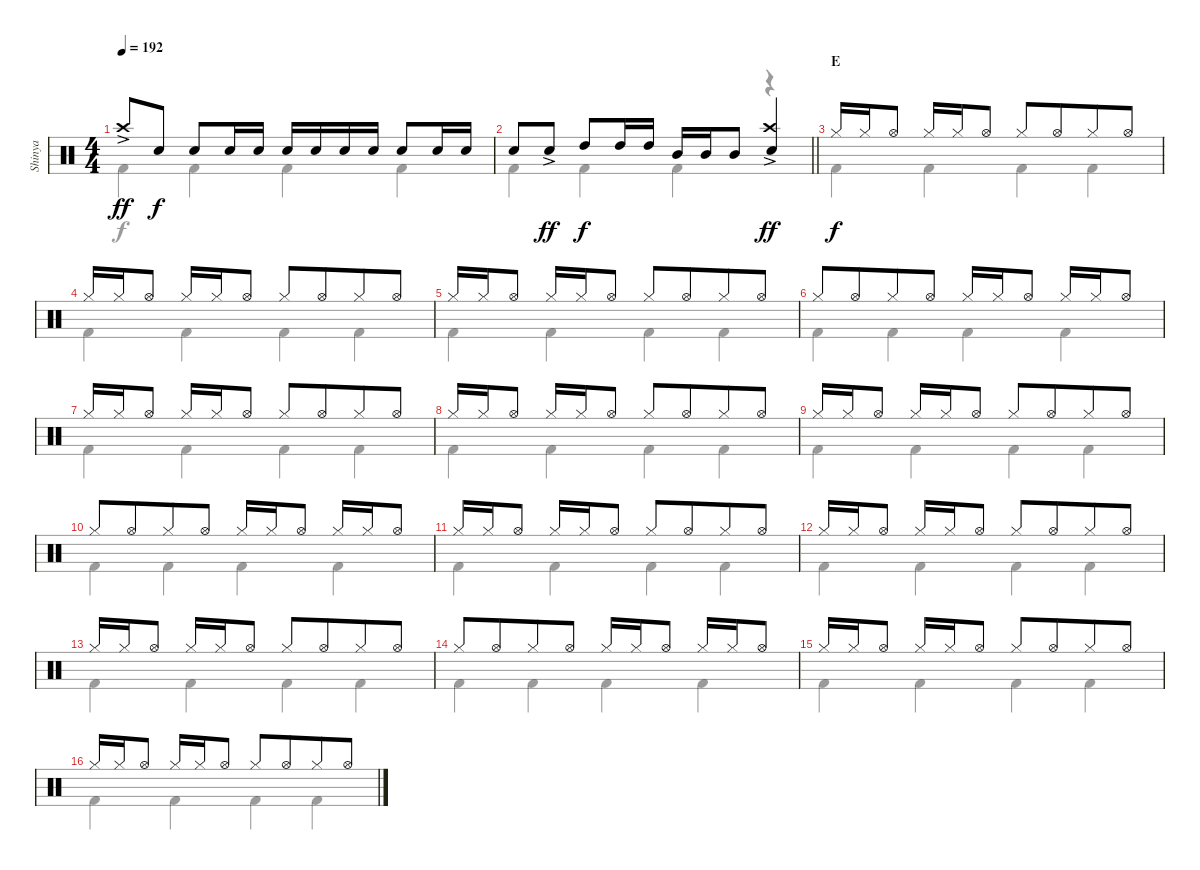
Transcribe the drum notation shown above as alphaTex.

\track ("Shinya" "Shinya") {instrument percussion}
\staff {score}
\articulation defaults
\voice
\ts (4 4)
\tempo 192
\clef neutral
\ks c "Crash high (hit)"{ac}.8{dy ff} "Snare (hit) 2".8{dy f} "Snare (hit) 2".8 "Snare (hit) 2".16 "Snare (hit) 2".16 "Snare (hit) 2".16 "Snare (hit) 2".16 "Snare (hit) 2".16 "Snare (hit) 2".16 "Snare (hit) 2".8 "Snare (hit) 2".16 "Snare (hit) 2".16
|
\barLineRight lightlight "Snare (hit) 2".8 "Snare (hit) 2"{ac}.8{dy ff} "High Tom (hit)".8{dy f} "High Tom (hit)".16 "High Tom (hit)".16 "Mid Tom (hit)".16 "Mid Tom (hit)".16 "Mid Tom (hit)".8
("Crash high (hit)"{ac} "Snare (hit) 2").4{dy ff} |
\section ("" "E")
"Hi-Hat (closed)".16{dy f} "Hi-Hat (closed)".16 "Hi-Hat (open)".8 "Hi-Hat (closed)".16 "Hi-Hat (closed)".16 "Hi-Hat (open)".8 "Hi-Hat (closed)".8 "Hi-Hat (open)".8{beam merge} "Hi-Hat (closed)".8 "Hi-Hat (open)".8 |
"Hi-Hat (closed)".16 "Hi-Hat (closed)".16 "Hi-Hat (open)".8 "Hi-Hat (closed)".16 "Hi-Hat (closed)".16 "Hi-Hat (open)".8 "Hi-Hat (closed)".8 "Hi-Hat (open)".8{beam merge} "Hi-Hat (closed)".8 "Hi-Hat (open)".8 |
"Hi-Hat (closed)".16 "Hi-Hat (closed)".16 "Hi-Hat (open)".8 "Hi-Hat (closed)".16 "Hi-Hat (closed)".16 "Hi-Hat (open)".8 "Hi-Hat (closed)".8 "Hi-Hat (open)".8{beam merge} "Hi-Hat (closed)".8 "Hi-Hat (open)".8 |
"Hi-Hat (closed)".8 "Hi-Hat (open)".8{beam merge} "Hi-Hat (closed)".8 "Hi-Hat (open)".8 "Hi-Hat (closed)".16 "Hi-Hat (closed)".16 "Hi-Hat (open)".8 "Hi-Hat (closed)".16 "Hi-Hat (closed)".16 "Hi-Hat (open)".8 |
"Hi-Hat (closed)".16 "Hi-Hat (closed)".16 "Hi-Hat (open)".8 "Hi-Hat (closed)".16 "Hi-Hat (closed)".16 "Hi-Hat (open)".8 "Hi-Hat (closed)".8 "Hi-Hat (open)".8{beam merge} "Hi-Hat (closed)".8 "Hi-Hat (open)".8 |
"Hi-Hat (closed)".16 "Hi-Hat (closed)".16 "Hi-Hat (open)".8 "Hi-Hat (closed)".16 "Hi-Hat (closed)".16 "Hi-Hat (open)".8 "Hi-Hat (closed)".8 "Hi-Hat (open)".8{beam merge} "Hi-Hat (closed)".8 "Hi-Hat (open)".8 |
"Hi-Hat (closed)".16 "Hi-Hat (closed)".16 "Hi-Hat (open)".8 "Hi-Hat (closed)".16 "Hi-Hat (closed)".16 "Hi-Hat (open)".8 "Hi-Hat (closed)".8 "Hi-Hat (open)".8{beam merge} "Hi-Hat (closed)".8 "Hi-Hat (open)".8 |
"Hi-Hat (closed)".8 "Hi-Hat (open)".8{beam merge} "Hi-Hat (closed)".8 "Hi-Hat (open)".8 "Hi-Hat (closed)".16 "Hi-Hat (closed)".16 "Hi-Hat (open)".8 "Hi-Hat (closed)".16 "Hi-Hat (closed)".16 "Hi-Hat (open)".8 |
"Hi-Hat (closed)".16 "Hi-Hat (closed)".16 "Hi-Hat (open)".8 "Hi-Hat (closed)".16 "Hi-Hat (closed)".16 "Hi-Hat (open)".8 "Hi-Hat (closed)".8 "Hi-Hat (open)".8{beam merge} "Hi-Hat (closed)".8 "Hi-Hat (open)".8 |
"Hi-Hat (closed)".16 "Hi-Hat (closed)".16 "Hi-Hat (open)".8 "Hi-Hat (closed)".16 "Hi-Hat (closed)".16 "Hi-Hat (open)".8 "Hi-Hat (closed)".8 "Hi-Hat (open)".8{beam merge} "Hi-Hat (closed)".8 "Hi-Hat (open)".8 |
"Hi-Hat (closed)".16 "Hi-Hat (closed)".16 "Hi-Hat (open)".8 "Hi-Hat (closed)".16 "Hi-Hat (closed)".16 "Hi-Hat (open)".8 "Hi-Hat (closed)".8 "Hi-Hat (open)".8{beam merge} "Hi-Hat (closed)".8 "Hi-Hat (open)".8 |
"Hi-Hat (closed)".8 "Hi-Hat (open)".8{beam merge} "Hi-Hat (closed)".8 "Hi-Hat (open)".8 "Hi-Hat (closed)".16 "Hi-Hat (closed)".16 "Hi-Hat (open)".8 "Hi-Hat (closed)".16 "Hi-Hat (closed)".16 "Hi-Hat (open)".8 |
"Hi-Hat (closed)".16 "Hi-Hat (closed)".16 "Hi-Hat (open)".8 "Hi-Hat (closed)".16 "Hi-Hat (closed)".16 "Hi-Hat (open)".8 "Hi-Hat (closed)".8 "Hi-Hat (open)".8{beam merge} "Hi-Hat (closed)".8 "Hi-Hat (open)".8 |
"Hi-Hat (closed)".16 "Hi-Hat (closed)".16 "Hi-Hat (open)".8 "Hi-Hat (closed)".16 "Hi-Hat (closed)".16 "Hi-Hat (open)".8 "Hi-Hat (closed)".8 "Hi-Hat (open)".8{beam merge} "Hi-Hat (closed)".8 "Hi-Hat (open)".8
\voice
\clef neutral
\ottava regular
\simile none
\ks c "Kick (hit) 2".4{dy f} "Kick (hit) 2".4 "Kick (hit) 2".4 "Kick (hit) 2".4
|
\barLineRight lightlight "Kick (hit) 2".4 "Kick (hit) 2".4 "Kick (hit) 2".4
r.4 |
"Kick (hit) 2".4 "Kick (hit) 2".4 "Kick (hit) 2".4 "Kick (hit) 2".4 |
"Kick (hit) 2".4 "Kick (hit) 2".4 "Kick (hit) 2".4 "Kick (hit) 2".4 |
"Kick (hit) 2".4 "Kick (hit) 2".4 "Kick (hit) 2".4 "Kick (hit) 2".4 |
"Kick (hit) 2".4 "Kick (hit) 2".4 "Kick (hit) 2".4 "Kick (hit) 2".4 |
"Kick (hit) 2".4 "Kick (hit) 2".4 "Kick (hit) 2".4 "Kick (hit) 2".4 |
"Kick (hit) 2".4 "Kick (hit) 2".4 "Kick (hit) 2".4 "Kick (hit) 2".4 |
"Kick (hit) 2".4 "Kick (hit) 2".4 "Kick (hit) 2".4 "Kick (hit) 2".4 |
"Kick (hit) 2".4 "Kick (hit) 2".4 "Kick (hit) 2".4 "Kick (hit) 2".4 |
"Kick (hit) 2".4 "Kick (hit) 2".4 "Kick (hit) 2".4 "Kick (hit) 2".4 |
"Kick (hit) 2".4 "Kick (hit) 2".4 "Kick (hit) 2".4 "Kick (hit) 2".4 |
"Kick (hit) 2".4 "Kick (hit) 2".4 "Kick (hit) 2".4 "Kick (hit) 2".4 |
"Kick (hit) 2".4 "Kick (hit) 2".4 "Kick (hit) 2".4 "Kick (hit) 2".4 |
"Kick (hit) 2".4 "Kick (hit) 2".4 "Kick (hit) 2".4 "Kick (hit) 2".4 |
"Kick (hit) 2".4 "Kick (hit) 2".4 "Kick (hit) 2".4 "Kick (hit) 2".4
